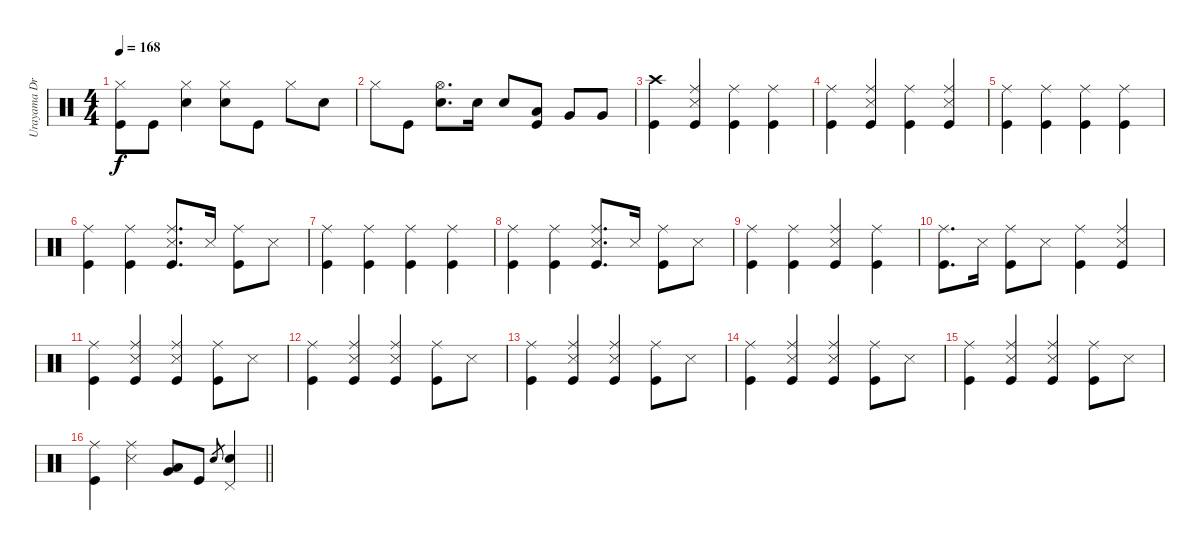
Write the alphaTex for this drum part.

\track ("Urayama Drums" "Urayama Dr") {instrument percussion}
\staff {score}
\articulation defaults
\ts (4 4)
\tempo 168
\clef neutral
\ks c
("Hi-Hat (closed)" "Kick (hit)").8{dy f} "Kick (hit)".8 ("Hi-Hat (closed)" "Electric Snare (hit)").4 ("Hi-Hat (closed)" "Electric Snare (hit)").8 "Kick (hit)".8 "Hi-Hat (closed)".8 "Electric Snare (hit)".8 |
"Hi-Hat (closed)".8 "Kick (hit)".8 ("Hi-Hat (open)" "Electric Snare (hit)").8{d} "Electric Snare (hit)".16 "Electric Snare (hit)".8 ("Low Tom (hit)" "Kick (hit)").8 "Very Low Tom (hit)".8 "Very Low Tom (hit)".8 |
("Crash high (hit)" "Kick (hit)").4 ("Ride (middle)" "Snare (side stick) 3" "Kick (hit)").4 ("Ride (middle)" "Kick (hit)").4 ("Ride (middle)" "Kick (hit)").4 |
("Ride (middle)" "Kick (hit)").4 ("Ride (middle)" "Snare (side stick) 3" "Kick (hit)").4 ("Ride (middle)" "Kick (hit)").4 ("Ride (middle)" "Snare (side stick) 3" "Kick (hit)").4 |
("Ride (middle)" "Kick (hit)").4 ("Ride (middle)" "Kick (hit)").4 ("Ride (middle)" "Kick (hit)").4 ("Ride (middle)" "Kick (hit)").4 |
("Ride (middle)" "Kick (hit)").4 ("Ride (middle)" "Kick (hit)").4 ("Ride (middle)" "Snare (side stick) 3" "Kick (hit)").8{d} "Snare (side stick) 3".16 ("Ride (middle)" "Kick (hit)").8 "Snare (side stick) 3".8 |
("Ride (middle)" "Kick (hit)").4 ("Ride (middle)" "Kick (hit)").4 ("Ride (middle)" "Kick (hit)").4 ("Ride (middle)" "Kick (hit)").4 |
("Ride (middle)" "Kick (hit)").4 ("Ride (middle)" "Kick (hit)").4 ("Ride (middle)" "Snare (side stick) 3" "Kick (hit)").8{d} "Snare (side stick) 3".16 ("Ride (middle)" "Kick (hit)").8 "Snare (side stick) 3".8 |
("Ride (middle)" "Kick (hit)").4 ("Ride (middle)" "Kick (hit)").4 ("Ride (middle)" "Snare (side stick) 3" "Kick (hit)").4 ("Ride (middle)" "Kick (hit)").4 |
("Ride (middle)" "Kick (hit)").8{d} "Snare (side stick) 3".16 ("Ride (middle)" "Kick (hit)").8 "Snare (side stick) 3".8 ("Ride (middle)" "Kick (hit)").4 ("Ride (middle)" "Snare (side stick) 3" "Kick (hit)").4 |
("Ride (middle)" "Kick (hit)").4 ("Ride (middle)" "Snare (side stick) 3" "Kick (hit)").4 ("Ride (middle)" "Snare (side stick) 3" "Kick (hit)").4 ("Ride (middle)" "Kick (hit)").8 "Snare (side stick) 3".8 |
("Ride (middle)" "Kick (hit)").4 ("Ride (middle)" "Snare (side stick) 3" "Kick (hit)").4 ("Ride (middle)" "Snare (side stick) 3" "Kick (hit)").4 ("Ride (middle)" "Kick (hit)").8 "Snare (side stick) 3".8 |
("Ride (middle)" "Kick (hit)").4 ("Ride (middle)" "Snare (side stick) 3" "Kick (hit)").4 ("Ride (middle)" "Snare (side stick) 3" "Kick (hit)").4 ("Ride (middle)" "Kick (hit)").8 "Snare (side stick) 3".8 |
("Ride (middle)" "Kick (hit)").4 ("Ride (middle)" "Snare (side stick) 3" "Kick (hit)").4 ("Ride (middle)" "Snare (side stick) 3" "Kick (hit)").4 ("Ride (middle)" "Kick (hit)").8 "Snare (side stick) 3".8 |
("Ride (middle)" "Kick (hit)").4 ("Ride (middle)" "Snare (side stick) 3" "Kick (hit)").4 ("Ride (middle)" "Snare (side stick) 3" "Kick (hit)").4 ("Ride (middle)" "Kick (hit)").8 "Snare (side stick) 3".8 |
\barLineRight lightlight
("Ride (middle)" "Kick (hit)").4 ("Ride (middle)" "Snare (side stick) 3").4 ("Low Tom (hit)" "Very Low Tom (hit)").8 "Kick (hit)".8 "Electric Snare (hit)".8{gr} ("Electric Snare (hit)" "Pedal Hi-Hat (hit)").4
